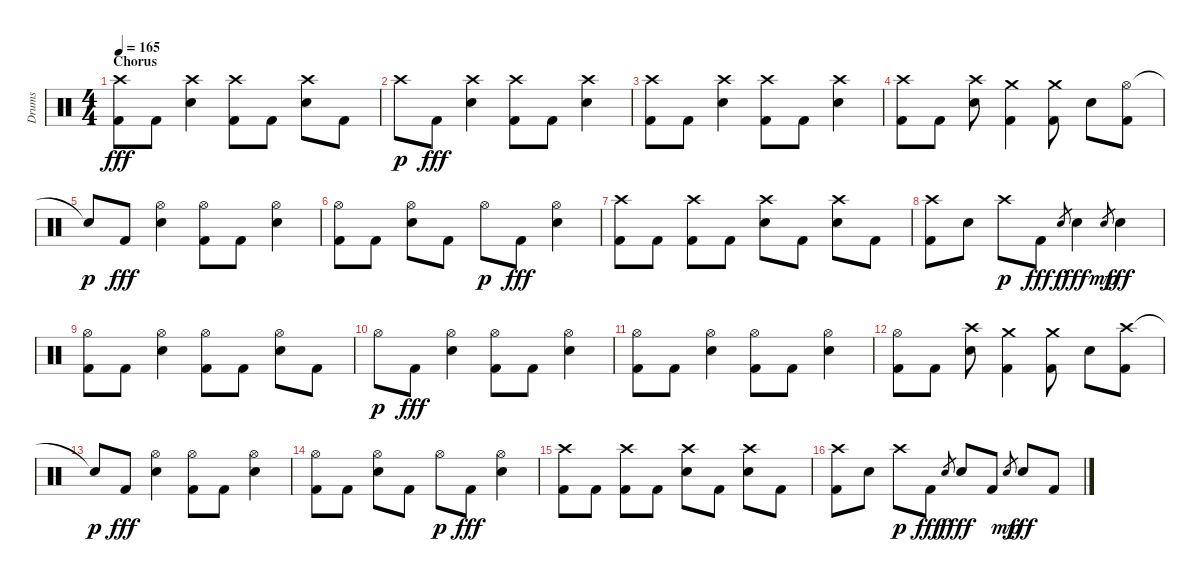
\track ("Drums" "Drums") {instrument percussion}
\staff {score}
\articulation defaults
\ts (4 4)
\section ("" "Chorus")
\tempo 165
\clef neutral
\ks c
("Crash high (hit)" "Kick (hit) 2").8{dy fff} "Kick (hit) 2".8 ("Crash high (hit)" "Snare (hit) 2").4 ("Crash high (hit)" "Kick (hit) 2").8 "Kick (hit) 2".8 ("Crash high (hit)" "Snare (hit) 2").8 "Kick (hit) 2".8 |
"Crash high (hit)".8{dy p} "Kick (hit) 2".8{dy fff} ("Crash high (hit)" "Snare (hit) 2").4 ("Crash high (hit)" "Kick (hit) 2").8 "Kick (hit) 2".8 ("Crash high (hit)" "Snare (hit) 2").4 |
("Crash high (hit)" "Kick (hit) 2").8 "Kick (hit) 2".8 ("Crash high (hit)" "Snare (hit) 2").4 ("Crash high (hit)" "Kick (hit) 2").8 "Kick (hit) 2".8 ("Crash high (hit)" "Snare (hit) 2").4 |
("Crash high (hit)" "Kick (hit) 2").8 "Kick (hit) 2".8 ("Crash high (hit)" "Snare (hit) 2").8 ("Crash medium (hit)" "Kick (hit) 2").4 ("Crash medium (hit)" "Kick (hit) 2").8 "Snare (hit) 2".8 ("Hi-Hat (open)" "Kick (hit) 2").8 |
"Snare (hit)"{t}.8{dy p} "Kick (hit) 2".8{dy fff} ("Hi-Hat (open)" "Snare (hit) 2").4 ("Hi-Hat (open)" "Kick (hit) 2").8 "Kick (hit) 2".8 ("Hi-Hat (open)" "Snare (hit) 2").4 |
("Hi-Hat (open)" "Kick (hit) 2").8 "Kick (hit) 2".8 ("Hi-Hat (open)" "Snare (hit) 2").8 "Kick (hit) 2".8 "Hi-Hat (open)".8{dy p} "Kick (hit) 2".8{dy fff} ("Hi-Hat (open)" "Snare (hit) 2").4 |
("Crash high (hit)" "Kick (hit) 2").8 "Kick (hit) 2".8 ("Crash high (hit)" "Kick (hit) 2").8 "Kick (hit) 2".8 ("Crash high (hit)" "Snare (hit) 2").8 "Kick (hit) 2".8 ("Crash high (hit)" "Snare (hit) 2").8 "Kick (hit) 2".8 |
("Crash high (hit)" "Kick (hit) 2").8 "Snare (hit) 2".8 "Crash high (hit)".8{dy p} "Kick (hit) 2".8{dy fff} "Snare (hit) 2".8{gr dy f} "Snare (hit) 2".4{dy fff} "Snare (hit) 2".8{gr dy mp} "Snare (hit) 2".4{dy fff} |
("Hi-Hat (open)" "Kick (hit) 2").8 "Kick (hit) 2".8 ("Hi-Hat (open)" "Snare (hit) 2").4 ("Hi-Hat (open)" "Kick (hit) 2").8 "Kick (hit) 2".8 ("Hi-Hat (open)" "Snare (hit) 2").8 "Kick (hit) 2".8 |
"Hi-Hat (open)".8{dy p} "Kick (hit) 2".8{dy fff} ("Hi-Hat (open)" "Snare (hit) 2").4 ("Hi-Hat (open)" "Kick (hit) 2").8 "Kick (hit) 2".8 ("Hi-Hat (open)" "Snare (hit) 2").4 |
("Hi-Hat (open)" "Kick (hit) 2").8 "Kick (hit) 2".8 ("Hi-Hat (open)" "Snare (hit) 2").4 ("Hi-Hat (open)" "Kick (hit) 2").8 "Kick (hit) 2".8 ("Hi-Hat (open)" "Snare (hit) 2").4 |
("Hi-Hat (open)" "Kick (hit) 2").8 "Kick (hit) 2".8 ("Crash high (hit)" "Snare (hit) 2").8 ("Crash medium (hit)" "Kick (hit) 2").4 ("Crash medium (hit)" "Kick (hit) 2").8 "Snare (hit) 2".8 ("Crash high (hit)" "Kick (hit) 2").8 |
"Snare (hit)"{t}.8{dy p} "Kick (hit) 2".8{dy fff} ("Hi-Hat (open)" "Snare (hit) 2").4 ("Hi-Hat (open)" "Kick (hit) 2").8 "Kick (hit) 2".8 ("Hi-Hat (open)" "Snare (hit) 2").4 |
("Hi-Hat (open)" "Kick (hit) 2").8 "Kick (hit) 2".8 ("Hi-Hat (open)" "Snare (hit) 2").8 "Kick (hit) 2".8 "Hi-Hat (open)".8{dy p} "Kick (hit) 2".8{dy fff} ("Hi-Hat (open)" "Snare (hit) 2").4 |
("Crash high (hit)" "Kick (hit) 2").8 "Kick (hit) 2".8 ("Crash high (hit)" "Kick (hit) 2").8 "Kick (hit) 2".8 ("Crash high (hit)" "Snare (hit) 2").8 "Kick (hit) 2".8 ("Crash high (hit)" "Snare (hit) 2").8 "Kick (hit) 2".8 |
("Crash high (hit)" "Kick (hit) 2").8 "Snare (hit) 2".8 "Crash high (hit)".8{dy p} "Kick (hit) 2".8{dy fff} "Snare (hit) 2".8{gr dy f} "Snare (hit) 2".8{dy fff} "Kick (hit) 2".8 "Snare (hit) 2".8{gr dy mp} "Snare (hit) 2".8{dy fff} "Kick (hit) 2".8
